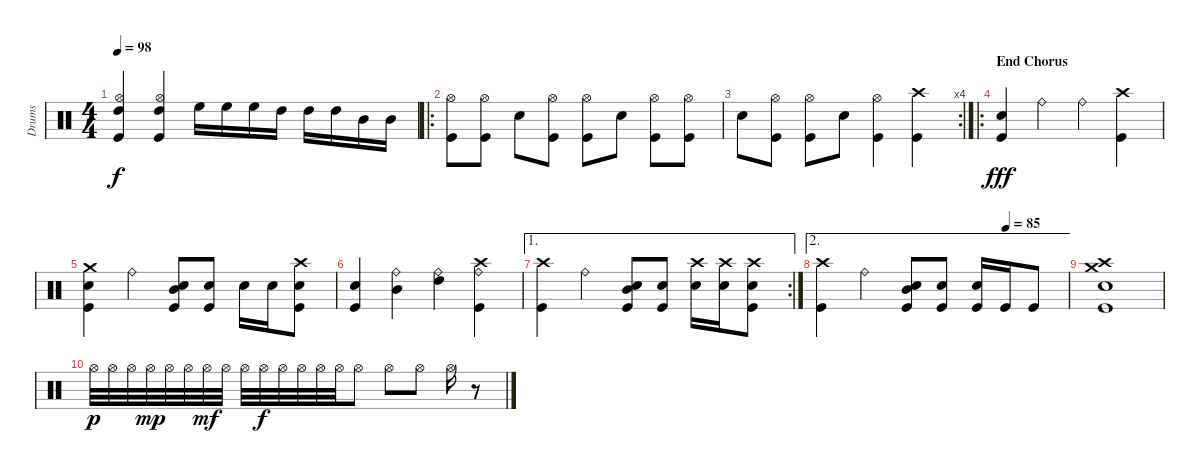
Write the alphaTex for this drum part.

\track ("Drums" "Drums") {instrument percussion}
\staff {score}
\articulation defaults
\ts (4 4)
\tempo 98
\clef neutral
\ks c
("Kick (hit)" "Hi-Hat (open)" "High Tom (hit)").4{dy f} ("Kick (hit)" "Hi-Hat (open)" "High Tom (hit)").4 "High Floor Tom (hit)".16 "High Floor Tom (hit)".16 "High Floor Tom (hit)".16 "High Tom (hit)".16 "High Tom (hit)".16 "High Tom (hit)".16 "Mid Tom (hit)".16 "Mid Tom (hit)".16 |
\ro
("Hi-Hat (open)" "Kick (hit)").8 ("Hi-Hat (open)" "Kick (hit)").8 "Electric Snare (hit)".8 ("Hi-Hat (open)" "Kick (hit)").8 ("Hi-Hat (open)" "Kick (hit)").8 "Electric Snare (hit)".8 ("Hi-Hat (open)" "Kick (hit)").8 ("Hi-Hat (open)" "Kick (hit)").8 |
\rc 4 "Electric Snare (hit)".8
("Hi-Hat (open)" "Kick (hit)").8 ("Hi-Hat (open)" "Kick (hit)").8 "Electric Snare (hit)".8 ("Hi-Hat (open)" "Kick (hit)").4 ("Crash high (hit)" "Kick (hit)").4 |
\ro
\section ("" "End Chorus")
("Electric Snare (hit)" "Kick (hit)").4{dy fff} "Ride (bell)".4 "Ride (bell)".4 ("Kick (hit)" "Crash high (hit)").4 |
("Electric Snare (hit)" "Kick (hit)" "Crash medium (hit)").4 "Ride (bell)".4 ("Mid Tom (hit)" "Electric Snare (hit)" "Kick (hit)").8 ("Electric Snare (hit)" "Kick (hit)").8 "Electric Snare (hit)".16 "Electric Snare (hit)".16 ("Electric Snare (hit)" "Kick (hit)" "Crash high (hit)").8 |
("Kick (hit)" "Electric Snare (hit)").4 ("Mid Tom (hit)" "Ride (bell)").4 ("High Tom (hit)" "Ride (bell)").4 ("Kick (hit)" "Ride (bell)" "Crash high (hit)").4 |
\ae 1
\rc 2
("Kick (hit)" "Crash high (hit)").4 "Ride (bell)".4 ("Mid Tom (hit)" "Electric Snare (hit)" "Kick (hit)").8 ("Electric Snare (hit)" "Kick (hit)").8 ("Crash high (hit)" "Electric Snare (hit)").16 ("Crash high (hit)" "Electric Snare (hit)").16 ("Electric Snare (hit)" "Kick (hit)" "Crash high (hit)").8 |
\ae 2
\tempo (85 0.75)
("Kick (hit)" "Crash high (hit)").4 "Ride (bell)".4 ("Mid Tom (hit)" "Electric Snare (hit)" "Kick (hit)").8 ("Electric Snare (hit)" "Kick (hit)").8 ("Electric Snare (hit)" "Kick (hit)").16 "Kick (hit)".16 "Kick (hit)".8 |
("Crash medium (hit)" "Electric Snare (hit)" "Crash high (hit)" "Kick (hit)").1 |
"Hi-Hat (open)".32{dy p} "Hi-Hat (open)".32 "Hi-Hat (open)".32 "Hi-Hat (open)".32{dy mp} "Hi-Hat (open)".32 "Hi-Hat (open)".32 "Hi-Hat (open)".32{dy mf} "Hi-Hat (open)".32 "Hi-Hat (open)".32 "Hi-Hat (open)".32{dy f} "Hi-Hat (open)".32 "Hi-Hat (open)".32 "Hi-Hat (open)".32 "Hi-Hat (open)".32 "Hi-Hat (open)".8 "Hi-Hat (open)".8 "Hi-Hat (open)".8 "Hi-Hat (open)".16 r.8
